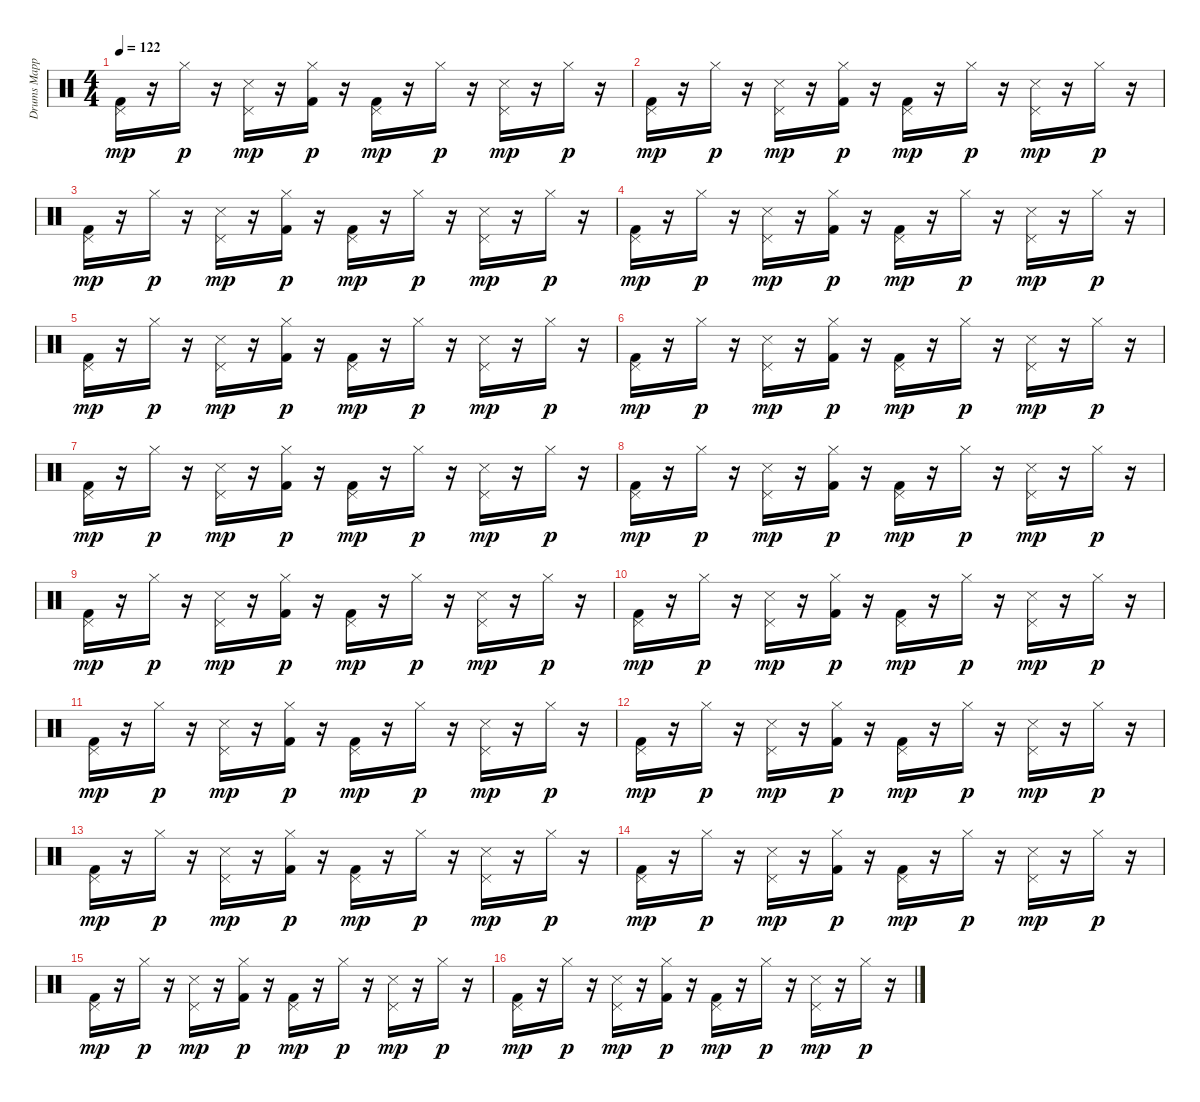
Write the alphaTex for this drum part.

\track ("Drums Mapped*merged" "Drums Mapp") {instrument percussion}
\staff {score}
\articulation defaults
\ts (4 4)
\tempo 122
\clef neutral
\ks c
("Kick (hit) 2" "Pedal Hi-Hat (hit)").16{dy mp} r.16 "Hi-Hat (closed)".16{dy p} r.16 ("Snare (side stick) 3" "Pedal Hi-Hat (hit)").16{dy mp} r.16 ("Kick (hit) 2" "Hi-Hat (closed)").16{dy p} r.16 ("Kick (hit) 2" "Pedal Hi-Hat (hit)").16{dy mp} r.16 "Hi-Hat (closed)".16{dy p} r.16 ("Snare (side stick) 3" "Pedal Hi-Hat (hit)").16{dy mp} r.16 "Hi-Hat (closed)".16{dy p} r.16 |
("Kick (hit) 2" "Pedal Hi-Hat (hit)").16{dy mp} r.16 "Hi-Hat (closed)".16{dy p} r.16 ("Snare (side stick) 3" "Pedal Hi-Hat (hit)").16{dy mp} r.16 ("Kick (hit) 2" "Hi-Hat (closed)").16{dy p} r.16 ("Kick (hit) 2" "Pedal Hi-Hat (hit)").16{dy mp} r.16 "Hi-Hat (closed)".16{dy p} r.16 ("Snare (side stick) 3" "Pedal Hi-Hat (hit)").16{dy mp} r.16 "Hi-Hat (closed)".16{dy p} r.16 |
("Kick (hit) 2" "Pedal Hi-Hat (hit)").16{dy mp} r.16 "Hi-Hat (closed)".16{dy p} r.16 ("Snare (side stick) 3" "Pedal Hi-Hat (hit)").16{dy mp} r.16 ("Kick (hit) 2" "Hi-Hat (closed)").16{dy p} r.16 ("Kick (hit) 2" "Pedal Hi-Hat (hit)").16{dy mp} r.16 "Hi-Hat (closed)".16{dy p} r.16 ("Snare (side stick) 3" "Pedal Hi-Hat (hit)").16{dy mp} r.16 "Hi-Hat (closed)".16{dy p} r.16 |
("Kick (hit) 2" "Pedal Hi-Hat (hit)").16{dy mp} r.16 "Hi-Hat (closed)".16{dy p} r.16 ("Snare (side stick) 3" "Pedal Hi-Hat (hit)").16{dy mp} r.16 ("Kick (hit) 2" "Hi-Hat (closed)").16{dy p} r.16 ("Kick (hit) 2" "Pedal Hi-Hat (hit)").16{dy mp} r.16 "Hi-Hat (closed)".16{dy p} r.16 ("Snare (side stick) 3" "Pedal Hi-Hat (hit)").16{dy mp} r.16 "Hi-Hat (closed)".16{dy p} r.16 |
("Kick (hit) 2" "Pedal Hi-Hat (hit)").16{dy mp} r.16 "Hi-Hat (closed)".16{dy p} r.16 ("Snare (side stick) 3" "Pedal Hi-Hat (hit)").16{dy mp} r.16 ("Kick (hit) 2" "Hi-Hat (closed)").16{dy p} r.16 ("Kick (hit) 2" "Pedal Hi-Hat (hit)").16{dy mp} r.16 "Hi-Hat (closed)".16{dy p} r.16 ("Snare (side stick) 3" "Pedal Hi-Hat (hit)").16{dy mp} r.16 "Hi-Hat (closed)".16{dy p} r.16 |
("Kick (hit) 2" "Pedal Hi-Hat (hit)").16{dy mp} r.16 "Hi-Hat (closed)".16{dy p} r.16 ("Snare (side stick) 3" "Pedal Hi-Hat (hit)").16{dy mp} r.16 ("Kick (hit) 2" "Hi-Hat (closed)").16{dy p} r.16 ("Kick (hit) 2" "Pedal Hi-Hat (hit)").16{dy mp} r.16 "Hi-Hat (closed)".16{dy p} r.16 ("Snare (side stick) 3" "Pedal Hi-Hat (hit)").16{dy mp} r.16 "Hi-Hat (closed)".16{dy p} r.16 |
("Kick (hit) 2" "Pedal Hi-Hat (hit)").16{dy mp} r.16 "Hi-Hat (closed)".16{dy p} r.16 ("Snare (side stick) 3" "Pedal Hi-Hat (hit)").16{dy mp} r.16 ("Kick (hit) 2" "Hi-Hat (closed)").16{dy p} r.16 ("Kick (hit) 2" "Pedal Hi-Hat (hit)").16{dy mp} r.16 "Hi-Hat (closed)".16{dy p} r.16 ("Snare (side stick) 3" "Pedal Hi-Hat (hit)").16{dy mp} r.16 "Hi-Hat (closed)".16{dy p} r.16 |
("Kick (hit) 2" "Pedal Hi-Hat (hit)").16{dy mp} r.16 "Hi-Hat (closed)".16{dy p} r.16 ("Snare (side stick) 3" "Pedal Hi-Hat (hit)").16{dy mp} r.16 ("Kick (hit) 2" "Hi-Hat (closed)").16{dy p} r.16 ("Kick (hit) 2" "Pedal Hi-Hat (hit)").16{dy mp} r.16 "Hi-Hat (closed)".16{dy p} r.16 ("Snare (side stick) 3" "Pedal Hi-Hat (hit)").16{dy mp} r.16 "Hi-Hat (closed)".16{dy p} r.16 |
("Kick (hit) 2" "Pedal Hi-Hat (hit)").16{dy mp} r.16 "Hi-Hat (closed)".16{dy p} r.16 ("Snare (side stick) 3" "Pedal Hi-Hat (hit)").16{dy mp} r.16 ("Kick (hit) 2" "Hi-Hat (closed)").16{dy p} r.16 ("Kick (hit) 2" "Pedal Hi-Hat (hit)").16{dy mp} r.16 "Hi-Hat (closed)".16{dy p} r.16 ("Snare (side stick) 3" "Pedal Hi-Hat (hit)").16{dy mp} r.16 "Hi-Hat (closed)".16{dy p} r.16 |
("Kick (hit) 2" "Pedal Hi-Hat (hit)").16{dy mp} r.16 "Hi-Hat (closed)".16{dy p} r.16 ("Snare (side stick) 3" "Pedal Hi-Hat (hit)").16{dy mp} r.16 ("Kick (hit) 2" "Hi-Hat (closed)").16{dy p} r.16 ("Kick (hit) 2" "Pedal Hi-Hat (hit)").16{dy mp} r.16 "Hi-Hat (closed)".16{dy p} r.16 ("Snare (side stick) 3" "Pedal Hi-Hat (hit)").16{dy mp} r.16 "Hi-Hat (closed)".16{dy p} r.16 |
("Kick (hit) 2" "Pedal Hi-Hat (hit)").16{dy mp} r.16 "Hi-Hat (closed)".16{dy p} r.16 ("Snare (side stick) 3" "Pedal Hi-Hat (hit)").16{dy mp} r.16 ("Kick (hit) 2" "Hi-Hat (closed)").16{dy p} r.16 ("Kick (hit) 2" "Pedal Hi-Hat (hit)").16{dy mp} r.16 "Hi-Hat (closed)".16{dy p} r.16 ("Snare (side stick) 3" "Pedal Hi-Hat (hit)").16{dy mp} r.16 "Hi-Hat (closed)".16{dy p} r.16 |
("Kick (hit) 2" "Pedal Hi-Hat (hit)").16{dy mp} r.16 "Hi-Hat (closed)".16{dy p} r.16 ("Snare (side stick) 3" "Pedal Hi-Hat (hit)").16{dy mp} r.16 ("Kick (hit) 2" "Hi-Hat (closed)").16{dy p} r.16 ("Kick (hit) 2" "Pedal Hi-Hat (hit)").16{dy mp} r.16 "Hi-Hat (closed)".16{dy p} r.16 ("Snare (side stick) 3" "Pedal Hi-Hat (hit)").16{dy mp} r.16 "Hi-Hat (closed)".16{dy p} r.16 |
("Kick (hit) 2" "Pedal Hi-Hat (hit)").16{dy mp} r.16 "Hi-Hat (closed)".16{dy p} r.16 ("Snare (side stick) 3" "Pedal Hi-Hat (hit)").16{dy mp} r.16 ("Kick (hit) 2" "Hi-Hat (closed)").16{dy p} r.16 ("Kick (hit) 2" "Pedal Hi-Hat (hit)").16{dy mp} r.16 "Hi-Hat (closed)".16{dy p} r.16 ("Snare (side stick) 3" "Pedal Hi-Hat (hit)").16{dy mp} r.16 "Hi-Hat (closed)".16{dy p} r.16 |
("Kick (hit) 2" "Pedal Hi-Hat (hit)").16{dy mp} r.16 "Hi-Hat (closed)".16{dy p} r.16 ("Snare (side stick) 3" "Pedal Hi-Hat (hit)").16{dy mp} r.16 ("Kick (hit) 2" "Hi-Hat (closed)").16{dy p} r.16 ("Kick (hit) 2" "Pedal Hi-Hat (hit)").16{dy mp} r.16 "Hi-Hat (closed)".16{dy p} r.16 ("Snare (side stick) 3" "Pedal Hi-Hat (hit)").16{dy mp} r.16 "Hi-Hat (closed)".16{dy p} r.16 |
("Kick (hit) 2" "Pedal Hi-Hat (hit)").16{dy mp} r.16 "Hi-Hat (closed)".16{dy p} r.16 ("Snare (side stick) 3" "Pedal Hi-Hat (hit)").16{dy mp} r.16 ("Kick (hit) 2" "Hi-Hat (closed)").16{dy p} r.16 ("Kick (hit) 2" "Pedal Hi-Hat (hit)").16{dy mp} r.16 "Hi-Hat (closed)".16{dy p} r.16 ("Snare (side stick) 3" "Pedal Hi-Hat (hit)").16{dy mp} r.16 "Hi-Hat (closed)".16{dy p} r.16 |
("Kick (hit) 2" "Pedal Hi-Hat (hit)").16{dy mp} r.16 "Hi-Hat (closed)".16{dy p} r.16 ("Snare (side stick) 3" "Pedal Hi-Hat (hit)").16{dy mp} r.16 ("Kick (hit) 2" "Hi-Hat (closed)").16{dy p} r.16 ("Kick (hit) 2" "Pedal Hi-Hat (hit)").16{dy mp} r.16 "Hi-Hat (closed)".16{dy p} r.16 ("Snare (side stick) 3" "Pedal Hi-Hat (hit)").16{dy mp} r.16 "Hi-Hat (closed)".16{dy p} r.16
